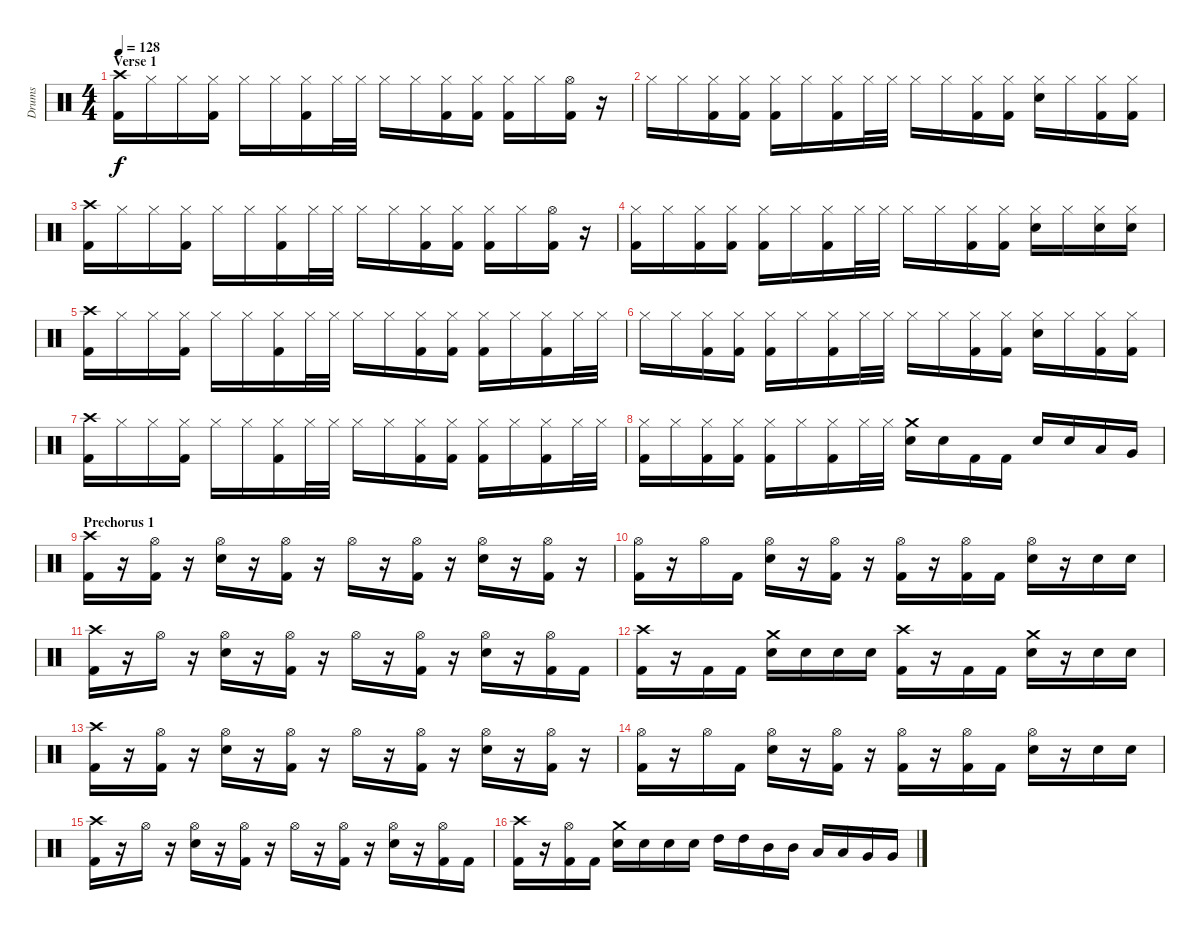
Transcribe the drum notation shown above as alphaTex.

\track ("Drums" "Drums") {instrument percussion}
\staff {score}
\articulation defaults
\ts (4 4)
\section ("" "Verse 1")
\tempo 128
\clef neutral
\ks c
("Crash high (hit)" "Kick (hit) 2").16{dy f} "Hi-Hat (closed)".16 "Hi-Hat (closed)".16 ("Hi-Hat (closed)" "Kick (hit) 2").16 "Hi-Hat (closed)".16 "Hi-Hat (closed)".16 ("Hi-Hat (closed)" "Kick (hit) 2").16 "Hi-Hat (closed)".32 "Hi-Hat (closed)".32 "Hi-Hat (closed)".16 "Hi-Hat (closed)".16 ("Hi-Hat (closed)" "Kick (hit) 2").16 ("Hi-Hat (closed)" "Kick (hit) 2").16 ("Hi-Hat (closed)" "Kick (hit) 2").16 "Hi-Hat (closed)".16 ("Hi-Hat (open)" "Kick (hit) 2").16 r.16 |
"Hi-Hat (closed)".16 "Hi-Hat (closed)".16 ("Hi-Hat (closed)" "Kick (hit) 2").16 ("Hi-Hat (closed)" "Kick (hit) 2").16 ("Hi-Hat (closed)" "Kick (hit) 2").16 "Hi-Hat (closed)".16 ("Hi-Hat (closed)" "Kick (hit) 2").16 "Hi-Hat (closed)".32 "Hi-Hat (closed)".32 "Hi-Hat (closed)".16 "Hi-Hat (closed)".16 ("Hi-Hat (closed)" "Kick (hit) 2").16 ("Hi-Hat (closed)" "Kick (hit) 2").16 ("Hi-Hat (closed)" "Snare (hit) 2").16 "Hi-Hat (closed)".16 ("Hi-Hat (closed)" "Kick (hit) 2").16 ("Hi-Hat (closed)" "Kick (hit) 2").16 |
("Crash high (hit)" "Kick (hit) 2").16 "Hi-Hat (closed)".16 "Hi-Hat (closed)".16 ("Hi-Hat (closed)" "Kick (hit) 2").16 "Hi-Hat (closed)".16 "Hi-Hat (closed)".16 ("Hi-Hat (closed)" "Kick (hit) 2").16 "Hi-Hat (closed)".32 "Hi-Hat (closed)".32 "Hi-Hat (closed)".16 "Hi-Hat (closed)".16 ("Hi-Hat (closed)" "Kick (hit) 2").16 ("Hi-Hat (closed)" "Kick (hit) 2").16 ("Hi-Hat (closed)" "Kick (hit) 2").16 "Hi-Hat (closed)".16 ("Hi-Hat (open)" "Kick (hit) 2").16 r.16 |
("Hi-Hat (closed)" "Kick (hit) 2").16 "Hi-Hat (closed)".16 ("Hi-Hat (closed)" "Kick (hit) 2").16 ("Hi-Hat (closed)" "Kick (hit) 2").16 ("Hi-Hat (closed)" "Kick (hit) 2").16 "Hi-Hat (closed)".16 ("Hi-Hat (closed)" "Kick (hit) 2").16 "Hi-Hat (closed)".32 "Hi-Hat (closed)".32 "Hi-Hat (closed)".16 "Hi-Hat (closed)".16 ("Hi-Hat (closed)" "Kick (hit) 2").16 ("Hi-Hat (closed)" "Kick (hit) 2").16 ("Hi-Hat (closed)" "Snare (hit) 2").16 "Hi-Hat (closed)".16 ("Hi-Hat (closed)" "Snare (hit) 2").16 ("Hi-Hat (closed)" "Snare (hit) 2").16 |
("Crash high (hit)" "Kick (hit) 2").16 "Hi-Hat (closed)".16 "Hi-Hat (closed)".16 ("Hi-Hat (closed)" "Kick (hit) 2").16 "Hi-Hat (closed)".16 "Hi-Hat (closed)".16 ("Hi-Hat (closed)" "Kick (hit) 2").16 "Hi-Hat (closed)".32 "Hi-Hat (closed)".32 "Hi-Hat (closed)".16 "Hi-Hat (closed)".16 ("Hi-Hat (closed)" "Kick (hit) 2").16 ("Hi-Hat (closed)" "Kick (hit) 2").16 ("Hi-Hat (closed)" "Kick (hit) 2").16 "Hi-Hat (closed)".16 ("Hi-Hat (closed)" "Kick (hit) 2").16 "Hi-Hat (closed)".32 "Hi-Hat (closed)".32 |
"Hi-Hat (closed)".16 "Hi-Hat (closed)".16 ("Hi-Hat (closed)" "Kick (hit) 2").16 ("Hi-Hat (closed)" "Kick (hit) 2").16 ("Hi-Hat (closed)" "Kick (hit) 2").16 "Hi-Hat (closed)".16 ("Hi-Hat (closed)" "Kick (hit) 2").16 "Hi-Hat (closed)".32 "Hi-Hat (closed)".32 "Hi-Hat (closed)".16 "Hi-Hat (closed)".16 ("Hi-Hat (closed)" "Kick (hit) 2").16 ("Hi-Hat (closed)" "Kick (hit) 2").16 ("Hi-Hat (closed)" "Snare (hit) 2").16 "Hi-Hat (closed)".16 ("Hi-Hat (closed)" "Kick (hit) 2").16 ("Hi-Hat (closed)" "Kick (hit) 2").16 |
("Crash high (hit)" "Kick (hit) 2").16 "Hi-Hat (closed)".16 "Hi-Hat (closed)".16 ("Hi-Hat (closed)" "Kick (hit) 2").16 "Hi-Hat (closed)".16 "Hi-Hat (closed)".16 ("Hi-Hat (closed)" "Kick (hit) 2").16 "Hi-Hat (closed)".32 "Hi-Hat (closed)".32 "Hi-Hat (closed)".16 "Hi-Hat (closed)".16 ("Hi-Hat (closed)" "Kick (hit) 2").16 ("Hi-Hat (closed)" "Kick (hit) 2").16 ("Hi-Hat (closed)" "Kick (hit) 2").16 "Hi-Hat (closed)".16 ("Hi-Hat (closed)" "Kick (hit) 2").16 "Hi-Hat (closed)".32 "Hi-Hat (closed)".32 |
("Hi-Hat (closed)" "Kick (hit) 2").16 "Hi-Hat (closed)".16 ("Hi-Hat (closed)" "Kick (hit) 2").16 ("Hi-Hat (closed)" "Kick (hit) 2").16 ("Hi-Hat (closed)" "Kick (hit) 2").16 "Hi-Hat (closed)".16 ("Hi-Hat (closed)" "Kick (hit) 2").16 "Hi-Hat (closed)".32 "Hi-Hat (closed)".32 ("Crash medium (hit)" "Snare (hit) 2").16 "Snare (hit) 2".16 "Kick (hit) 2".16 "Kick (hit) 2".16 "Snare (hit) 2".16 "Snare (hit) 2".16 "Low Tom (hit)".16 "Very Low Tom (hit)".16 |
\section ("" "Prechorus 1")
("Crash high (hit)" "Kick (hit) 2").16 r.16 ("Hi-Hat (open)" "Kick (hit) 2").16 r.16 ("Hi-Hat (open)" "Snare (hit) 2").16 r.16 ("Hi-Hat (open)" "Kick (hit) 2").16 r.16 "Hi-Hat (open)".16 r.16 ("Hi-Hat (open)" "Kick (hit) 2").16 r.16 ("Hi-Hat (open)" "Snare (hit) 2").16 r.16 ("Hi-Hat (open)" "Kick (hit) 2").16 r.16 |
("Hi-Hat (open)" "Kick (hit) 2").16 r.16 "Hi-Hat (open)".16 "Kick (hit) 2".16 ("Hi-Hat (open)" "Snare (hit) 2").16 r.16 ("Hi-Hat (open)" "Kick (hit) 2").16 r.16 ("Hi-Hat (open)" "Kick (hit) 2").16 r.16 ("Hi-Hat (open)" "Kick (hit) 2").16 "Kick (hit) 2".16 ("Hi-Hat (open)" "Snare (hit) 2").16 r.16 "Snare (hit) 2".16 "Snare (hit) 2".16 |
("Crash high (hit)" "Kick (hit) 2").16 r.16 "Hi-Hat (open)".16 r.16 ("Hi-Hat (open)" "Snare (hit) 2").16 r.16 ("Hi-Hat (open)" "Kick (hit) 2").16 r.16 "Hi-Hat (open)".16 r.16 ("Hi-Hat (open)" "Kick (hit) 2").16 r.16 ("Hi-Hat (open)" "Snare (hit) 2").16 r.16 ("Hi-Hat (open)" "Kick (hit) 2").16 "Kick (hit) 2".16 |
("Crash high (hit)" "Kick (hit) 2").16 r.16 "Kick (hit) 2".16 "Kick (hit) 2".16 ("Crash medium (hit)" "Snare (hit) 2").16 "Snare (hit) 2".16 "Snare (hit) 2".16 "Snare (hit) 2".16 ("Crash high (hit)" "Kick (hit) 2").16 r.16 "Kick (hit) 2".16 "Kick (hit) 2".16 ("Crash medium (hit)" "Snare (hit) 2").16 r.16 "Snare (hit) 2".16 "Snare (hit) 2".16 |
("Crash high (hit)" "Kick (hit) 2").16 r.16 ("Hi-Hat (open)" "Kick (hit) 2").16 r.16 ("Hi-Hat (open)" "Snare (hit) 2").16 r.16 ("Hi-Hat (open)" "Kick (hit) 2").16 r.16 "Hi-Hat (open)".16 r.16 ("Hi-Hat (open)" "Kick (hit) 2").16 r.16 ("Hi-Hat (open)" "Snare (hit) 2").16 r.16 ("Hi-Hat (open)" "Kick (hit) 2").16 r.16 |
("Hi-Hat (open)" "Kick (hit) 2").16 r.16 "Hi-Hat (open)".16 "Kick (hit) 2".16 ("Hi-Hat (open)" "Snare (hit) 2").16 r.16 ("Hi-Hat (open)" "Kick (hit) 2").16 r.16 ("Hi-Hat (open)" "Kick (hit) 2").16 r.16 ("Hi-Hat (open)" "Kick (hit) 2").16 "Kick (hit) 2".16 ("Hi-Hat (open)" "Snare (hit) 2").16 r.16 "Snare (hit) 2".16 "Snare (hit) 2".16 |
("Crash high (hit)" "Kick (hit) 2").16 r.16 "Hi-Hat (open)".16 r.16 ("Hi-Hat (open)" "Snare (hit) 2").16 r.16 ("Hi-Hat (open)" "Kick (hit) 2").16 r.16 "Hi-Hat (open)".16 r.16 ("Hi-Hat (open)" "Kick (hit) 2").16 r.16 ("Hi-Hat (open)" "Snare (hit) 2").16 r.16 ("Hi-Hat (open)" "Kick (hit) 2").16 "Kick (hit) 2".16 |
("Crash high (hit)" "Kick (hit) 2").16 r.16 ("Hi-Hat (open)" "Kick (hit) 2").16 "Kick (hit) 2".16 ("Crash medium (hit)" "Snare (hit) 2").16 "Snare (hit) 2".16 "Snare (hit) 2".16 "Snare (hit) 2".16 "High Tom (hit)".16 "High Tom (hit)".16 "Mid Tom (hit)".16 "Mid Tom (hit)".16 "Low Tom (hit)".16 "Low Tom (hit)".16 "Very Low Tom (hit)".16 "Very Low Tom (hit)".16
